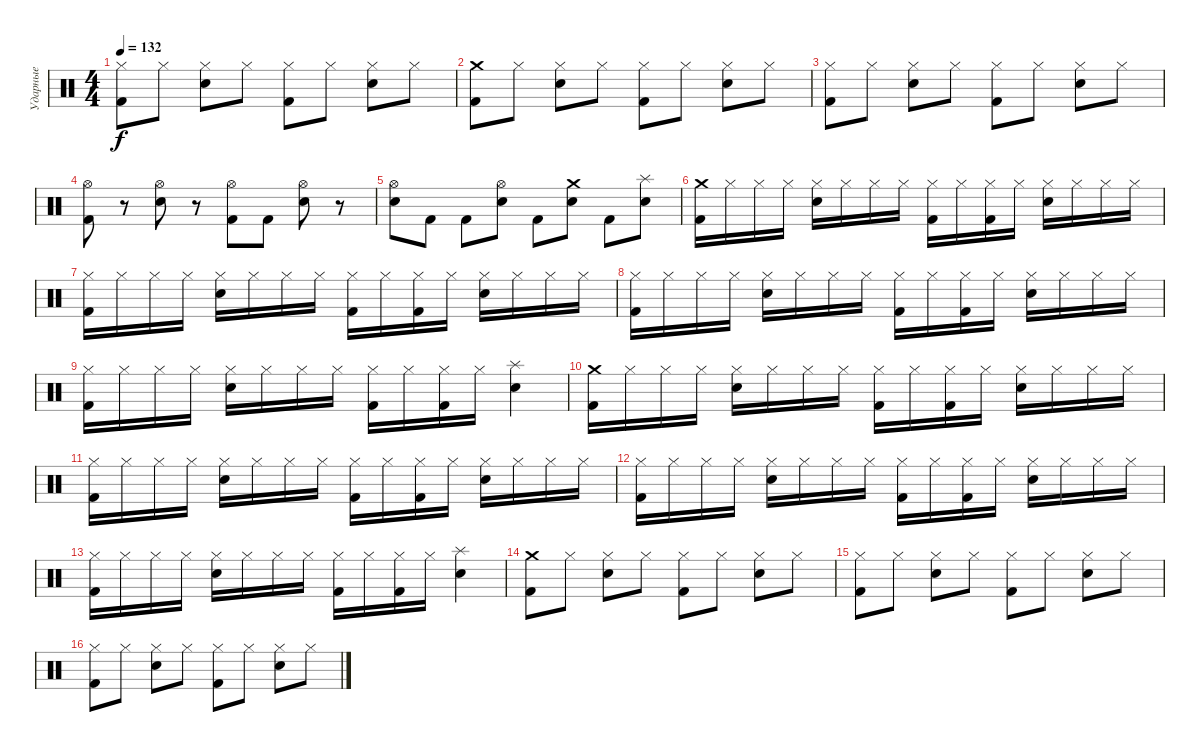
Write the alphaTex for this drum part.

\track ("Ударные" "Ударные") {instrument percussion}
\staff {score}
\articulation defaults
\ts (4 4)
\tempo 132
\clef neutral
\ks c
("Hi-Hat (closed)" "Kick (hit) 2").8{dy f} "Hi-Hat (closed)".8 ("Hi-Hat (closed)" "Electric Snare (hit)").8 "Hi-Hat (closed)".8 ("Hi-Hat (closed)" "Kick (hit) 2").8 "Hi-Hat (closed)".8 ("Hi-Hat (closed)" "Electric Snare (hit)").8 "Hi-Hat (closed)".8 |
("Crash medium (hit)" "Kick (hit) 2").8 "Hi-Hat (closed)".8 ("Hi-Hat (closed)" "Electric Snare (hit)").8 "Hi-Hat (closed)".8 ("Hi-Hat (closed)" "Kick (hit) 2").8 "Hi-Hat (closed)".8 ("Hi-Hat (closed)" "Electric Snare (hit)").8 "Hi-Hat (closed)".8 |
("Hi-Hat (closed)" "Kick (hit) 2").8 "Hi-Hat (closed)".8 ("Hi-Hat (closed)" "Electric Snare (hit)").8 "Hi-Hat (closed)".8 ("Hi-Hat (closed)" "Kick (hit) 2").8 "Hi-Hat (closed)".8 ("Hi-Hat (closed)" "Electric Snare (hit)").8 "Hi-Hat (closed)".8 |
("Hi-Hat (open)" "Kick (hit) 2").8 r.8 ("Hi-Hat (open)" "Electric Snare (hit)").8 r.8 ("Hi-Hat (open)" "Kick (hit) 2").8 "Kick (hit) 2".8 ("Hi-Hat (open)" "Electric Snare (hit)").8 r.8 |
("Hi-Hat (open)" "Electric Snare (hit)").8 "Kick (hit) 2".8 "Kick (hit) 2".8 ("Hi-Hat (open)" "Electric Snare (hit)").8 "Kick (hit) 2".8 ("Crash medium (hit)" "Electric Snare (hit)").8 "Kick (hit) 2".8 ("Splash (hit)" "Electric Snare (hit)").8 |
("Crash medium (hit)" "Kick (hit) 2").16 "Hi-Hat (closed)".16 "Hi-Hat (closed)".16 "Hi-Hat (closed)".16 ("Hi-Hat (closed)" "Electric Snare (hit)").16 "Hi-Hat (closed)".16 "Hi-Hat (closed)".16 "Hi-Hat (closed)".16 ("Hi-Hat (closed)" "Kick (hit) 2").16 "Hi-Hat (closed)".16 ("Hi-Hat (closed)" "Kick (hit) 2").16 "Hi-Hat (closed)".16 ("Hi-Hat (closed)" "Electric Snare (hit)").16 "Hi-Hat (closed)".16 "Hi-Hat (closed)".16 "Hi-Hat (closed)".16 |
("Hi-Hat (closed)" "Kick (hit) 2").16 "Hi-Hat (closed)".16 "Hi-Hat (closed)".16 "Hi-Hat (closed)".16 ("Hi-Hat (closed)" "Electric Snare (hit)").16 "Hi-Hat (closed)".16 "Hi-Hat (closed)".16 "Hi-Hat (closed)".16 ("Hi-Hat (closed)" "Kick (hit) 2").16 "Hi-Hat (closed)".16 ("Hi-Hat (closed)" "Kick (hit) 2").16 "Hi-Hat (closed)".16 ("Hi-Hat (closed)" "Electric Snare (hit)").16 "Hi-Hat (closed)".16 "Hi-Hat (closed)".16 "Hi-Hat (closed)".16 |
("Hi-Hat (closed)" "Kick (hit) 2").16 "Hi-Hat (closed)".16 "Hi-Hat (closed)".16 "Hi-Hat (closed)".16 ("Hi-Hat (closed)" "Electric Snare (hit)").16 "Hi-Hat (closed)".16 "Hi-Hat (closed)".16 "Hi-Hat (closed)".16 ("Hi-Hat (closed)" "Kick (hit) 2").16 "Hi-Hat (closed)".16 ("Hi-Hat (closed)" "Kick (hit) 2").16 "Hi-Hat (closed)".16 ("Hi-Hat (closed)" "Electric Snare (hit)").16 "Hi-Hat (closed)".16 "Hi-Hat (closed)".16 "Hi-Hat (closed)".16 |
("Hi-Hat (closed)" "Kick (hit) 2").16 "Hi-Hat (closed)".16 "Hi-Hat (closed)".16 "Hi-Hat (closed)".16 ("Hi-Hat (closed)" "Electric Snare (hit)").16 "Hi-Hat (closed)".16 "Hi-Hat (closed)".16 "Hi-Hat (closed)".16 ("Hi-Hat (closed)" "Kick (hit) 2").16 "Hi-Hat (closed)".16 ("Hi-Hat (closed)" "Kick (hit) 2").16 "Hi-Hat (closed)".16 ("Splash (hit)" "Electric Snare (hit)").4 |
("Crash medium (hit)" "Kick (hit) 2").16 "Hi-Hat (closed)".16 "Hi-Hat (closed)".16 "Hi-Hat (closed)".16 ("Hi-Hat (closed)" "Electric Snare (hit)").16 "Hi-Hat (closed)".16 "Hi-Hat (closed)".16 "Hi-Hat (closed)".16 ("Hi-Hat (closed)" "Kick (hit) 2").16 "Hi-Hat (closed)".16 ("Hi-Hat (closed)" "Kick (hit) 2").16 "Hi-Hat (closed)".16 ("Hi-Hat (closed)" "Electric Snare (hit)").16 "Hi-Hat (closed)".16 "Hi-Hat (closed)".16 "Hi-Hat (closed)".16 |
("Hi-Hat (closed)" "Kick (hit) 2").16 "Hi-Hat (closed)".16 "Hi-Hat (closed)".16 "Hi-Hat (closed)".16 ("Hi-Hat (closed)" "Electric Snare (hit)").16 "Hi-Hat (closed)".16 "Hi-Hat (closed)".16 "Hi-Hat (closed)".16 ("Hi-Hat (closed)" "Kick (hit) 2").16 "Hi-Hat (closed)".16 ("Hi-Hat (closed)" "Kick (hit) 2").16 "Hi-Hat (closed)".16 ("Hi-Hat (closed)" "Electric Snare (hit)").16 "Hi-Hat (closed)".16 "Hi-Hat (closed)".16 "Hi-Hat (closed)".16 |
("Hi-Hat (closed)" "Kick (hit) 2").16 "Hi-Hat (closed)".16 "Hi-Hat (closed)".16 "Hi-Hat (closed)".16 ("Hi-Hat (closed)" "Electric Snare (hit)").16 "Hi-Hat (closed)".16 "Hi-Hat (closed)".16 "Hi-Hat (closed)".16 ("Hi-Hat (closed)" "Kick (hit) 2").16 "Hi-Hat (closed)".16 ("Hi-Hat (closed)" "Kick (hit) 2").16 "Hi-Hat (closed)".16 ("Hi-Hat (closed)" "Electric Snare (hit)").16 "Hi-Hat (closed)".16 "Hi-Hat (closed)".16 "Hi-Hat (closed)".16 |
("Hi-Hat (closed)" "Kick (hit) 2").16 "Hi-Hat (closed)".16 "Hi-Hat (closed)".16 "Hi-Hat (closed)".16 ("Hi-Hat (closed)" "Electric Snare (hit)").16 "Hi-Hat (closed)".16 "Hi-Hat (closed)".16 "Hi-Hat (closed)".16 ("Hi-Hat (closed)" "Kick (hit) 2").16 "Hi-Hat (closed)".16 ("Hi-Hat (closed)" "Kick (hit) 2").16 "Hi-Hat (closed)".16 ("Splash (hit)" "Electric Snare (hit)").4 |
("Crash medium (hit)" "Kick (hit) 2").8 "Hi-Hat (closed)".8 ("Hi-Hat (closed)" "Electric Snare (hit)").8 "Hi-Hat (closed)".8 ("Hi-Hat (closed)" "Kick (hit) 2").8 "Hi-Hat (closed)".8 ("Hi-Hat (closed)" "Electric Snare (hit)").8 "Hi-Hat (closed)".8 |
("Hi-Hat (closed)" "Kick (hit) 2").8 "Hi-Hat (closed)".8 ("Hi-Hat (closed)" "Electric Snare (hit)").8 "Hi-Hat (closed)".8 ("Hi-Hat (closed)" "Kick (hit) 2").8 "Hi-Hat (closed)".8 ("Hi-Hat (closed)" "Electric Snare (hit)").8 "Hi-Hat (closed)".8 |
("Hi-Hat (closed)" "Kick (hit) 2").8 "Hi-Hat (closed)".8 ("Hi-Hat (closed)" "Electric Snare (hit)").8 "Hi-Hat (closed)".8 ("Hi-Hat (closed)" "Kick (hit) 2").8 "Hi-Hat (closed)".8 ("Hi-Hat (closed)" "Electric Snare (hit)").8 "Hi-Hat (closed)".8
